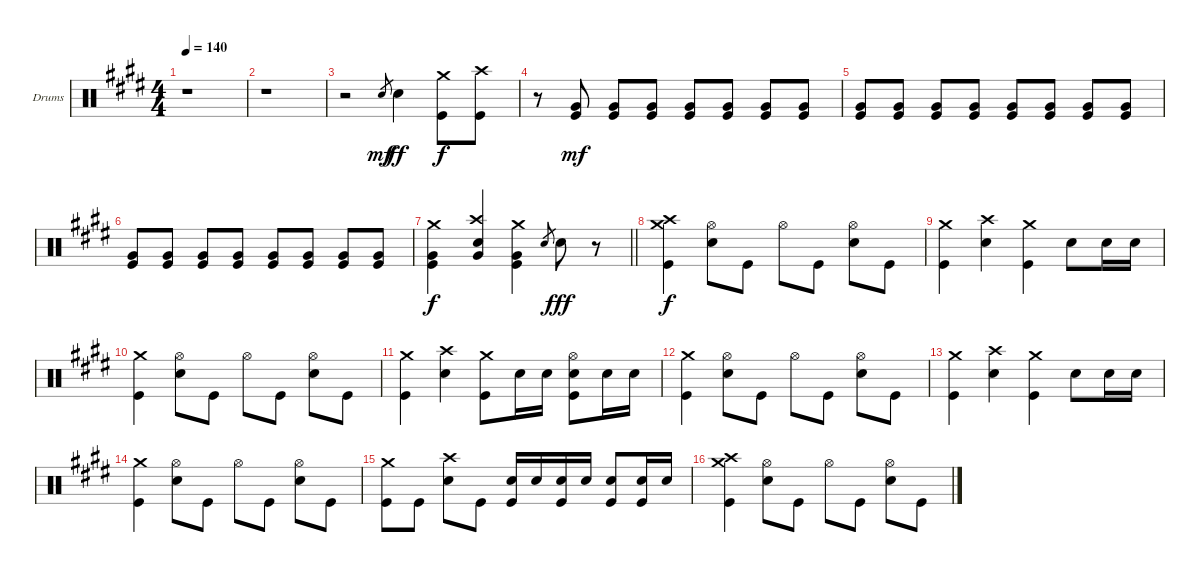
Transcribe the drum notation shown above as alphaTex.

\bracketExtendMode groupsimilarinstruments
\firstSystemTrackNameOrientation horizontal
\otherSystemsTrackNameOrientation horizontal
\track ("Drumkit" "Drums") {instrument percussion}
\staff {score}
\articulation defaults
\ts (4 4)
\tempo 140
\clef neutral
\ks e
r.1{dy f} |
r.1 |
r.2 "Snare (hit) 2".8{gr dy mf} "Snare (hit) 2".4{dy ff} ("Crash medium (hit)" "Kick (hit)").8{dy f} ("Crash high (hit)" "Kick (hit)").8 |
r.8 ("Very Low Tom (hit)" "Kick (hit)").8{dy mf} ("Very Low Tom (hit)" "Kick (hit)").8 ("Very Low Tom (hit)" "Kick (hit)").8 ("Very Low Tom (hit)" "Kick (hit)").8 ("Very Low Tom (hit)" "Kick (hit)").8 ("Very Low Tom (hit)" "Kick (hit)").8 ("Very Low Tom (hit)" "Kick (hit)").8 |
("Very Low Tom (hit)" "Kick (hit)").8 ("Very Low Tom (hit)" "Kick (hit)").8 ("Very Low Tom (hit)" "Kick (hit)").8 ("Very Low Tom (hit)" "Kick (hit)").8 ("Very Low Tom (hit)" "Kick (hit)").8 ("Very Low Tom (hit)" "Kick (hit)").8 ("Very Low Tom (hit)" "Kick (hit)").8 ("Very Low Tom (hit)" "Kick (hit)").8 |
("Very Low Tom (hit)" "Kick (hit)").8 ("Very Low Tom (hit)" "Kick (hit)").8 ("Very Low Tom (hit)" "Kick (hit)").8 ("Very Low Tom (hit)" "Kick (hit)").8 ("Very Low Tom (hit)" "Kick (hit)").8 ("Very Low Tom (hit)" "Kick (hit)").8 ("Very Low Tom (hit)" "Kick (hit)").8 ("Very Low Tom (hit)" "Kick (hit)").8 |
\barLineRight lightlight
("Crash medium (hit)" "Very Low Tom (hit)" "Kick (hit)").4{dy f} ("Crash high (hit)" "Snare (hit) 2" "Very Low Tom (hit)").4 ("Crash medium (hit)" "Very Low Tom (hit)" "Kick (hit)").4 "Snare (hit) 2".8{gr} "Snare (hit) 2".8{dy fff} r.8 |
("Crash high (hit)" "Crash medium (hit)" "Kick (hit)").4{dy f} ("Hi-Hat (open)" "Snare (hit) 2").8 "Kick (hit)".8 "Hi-Hat (open)".8 "Kick (hit)".8 ("Hi-Hat (open)" "Snare (hit) 2").8 "Kick (hit)".8 |
("Crash medium (hit)" "Kick (hit)").4 ("Crash high (hit)" "Snare (hit) 2").4 ("Crash medium (hit)" "Kick (hit)").4 "Snare (hit) 2".8 "Snare (hit) 2".16 "Snare (hit) 2".16 |
("Crash medium (hit)" "Kick (hit)").4 ("Hi-Hat (open)" "Snare (hit) 2").8 "Kick (hit)".8 "Hi-Hat (open)".8 "Kick (hit)".8 ("Hi-Hat (open)" "Snare (hit) 2").8 "Kick (hit)".8 |
("Crash medium (hit)" "Kick (hit)").4 ("Crash high (hit)" "Snare (hit) 2").4 ("Crash medium (hit)" "Kick (hit)").8 "Snare (hit) 2".16 "Snare (hit) 2".16 ("Hi-Hat (open)" "Snare (hit) 2" "Kick (hit)").8 "Snare (hit) 2".16 "Snare (hit) 2".16 |
("Crash medium (hit)" "Kick (hit)").4 ("Hi-Hat (open)" "Snare (hit) 2").8 "Kick (hit)".8 "Hi-Hat (open)".8 "Kick (hit)".8 ("Hi-Hat (open)" "Snare (hit) 2").8 "Kick (hit)".8 |
("Crash medium (hit)" "Kick (hit)").4 ("Crash high (hit)" "Snare (hit) 2").4 ("Crash medium (hit)" "Kick (hit)").4 "Snare (hit) 2".8 "Snare (hit) 2".16 "Snare (hit) 2".16 |
("Crash medium (hit)" "Kick (hit)").4 ("Hi-Hat (open)" "Snare (hit) 2").8 "Kick (hit)".8 "Hi-Hat (open)".8 "Kick (hit)".8 ("Hi-Hat (open)" "Snare (hit) 2").8 "Kick (hit)".8 |
("Crash medium (hit)" "Kick (hit)").8 "Kick (hit)".8 ("Crash high (hit)" "Snare (hit) 2").8 "Kick (hit)".8 ("Snare (hit) 2" "Kick (hit)").16 "Snare (hit) 2".16 ("Snare (hit) 2" "Kick (hit)").16 "Snare (hit) 2".16 ("Snare (hit) 2" "Kick (hit)").8 ("Snare (hit) 2" "Kick (hit)").16 "Snare (hit) 2".16 |
("Crash high (hit)" "Crash medium (hit)" "Kick (hit)").4 ("Hi-Hat (open)" "Snare (hit) 2").8 "Kick (hit)".8 "Hi-Hat (open)".8 "Kick (hit)".8 ("Hi-Hat (open)" "Snare (hit) 2").8 "Kick (hit)".8
